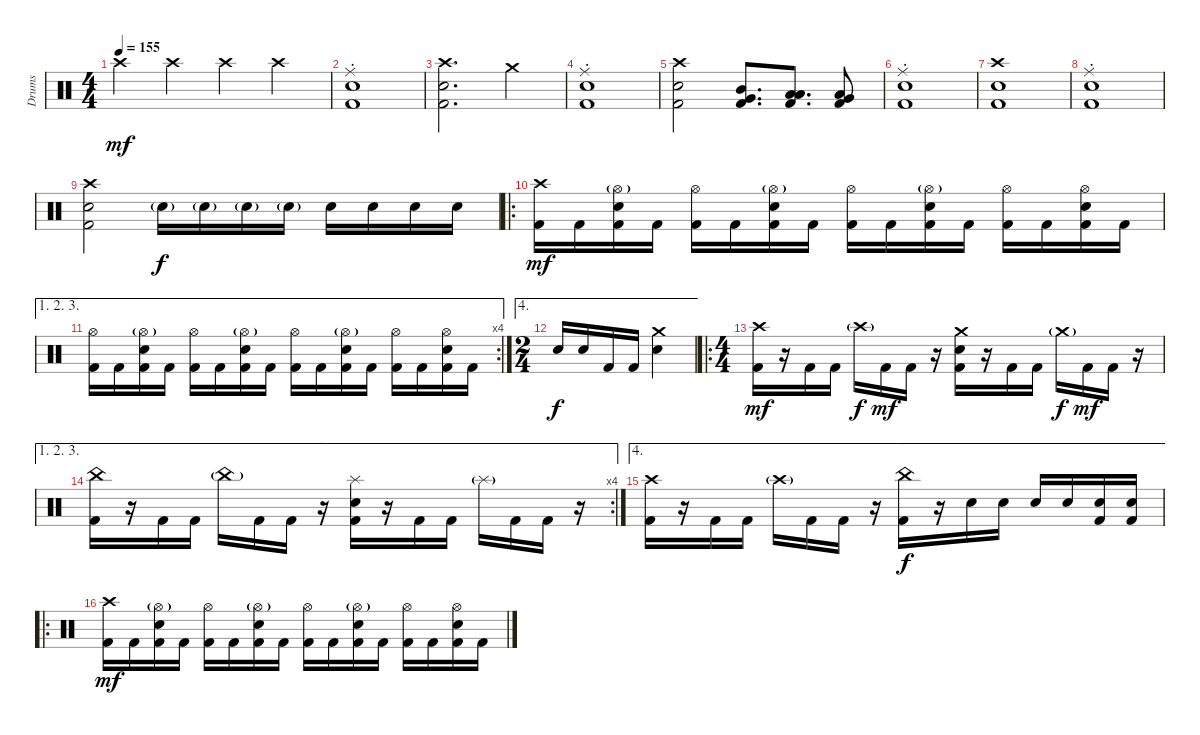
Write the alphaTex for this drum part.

\track ("Drums" "Drums") {instrument percussion}
\staff {score}
\articulation defaults
\ts (4 4)
\tempo 155
\clef neutral
\ks c "Crash high (hit)".4{dy mf} "Crash high (hit)".4 "Crash high (hit)".4 "Crash high (hit)".4
|
("Kick (hit) 2" "Snare (hit) 2" "Ride (choke)").1 |
("Kick (hit) 2" "Crash high (hit)" "Snare (hit) 2").2{d} "Crash medium (hit)".4 |
("Kick (hit) 2" "Snare (hit) 2" "Ride (choke)").1 |
("Kick (hit) 2" "Crash high (hit)" "Snare (hit) 2").2 ("Kick (hit) 2" "Mid Tom (hit)" "Very Low Tom (hit)").8{d} ("Kick (hit) 2" "Low Tom (hit)" "Low Floor Tom (hit)").8{d} ("Kick (hit) 2" "Very Low Tom (hit)" "Low Floor Tom (hit)").8 |
("Kick (hit) 2" "Snare (hit) 2" "Ride (choke)").1 |
("Kick (hit) 2" "Crash high (hit)" "Snare (hit) 2").1 |
("Kick (hit) 2" "Snare (hit) 2" "Ride (choke)").1 |
("Kick (hit) 2" "Crash high (hit)" "Snare (hit) 2").2 "Snare (hit) 2"{g}.16{dy f} "Snare (hit) 2"{g}.16 "Snare (hit) 2"{g}.16 "Snare (hit) 2"{g}.16 "Snare (hit) 2".16 "Snare (hit) 2".16 "Snare (hit) 2".16 "Snare (hit) 2".16 |
\ro
("Kick (hit) 2" "Crash high (hit)").16{dy mf} "Kick (hit) 2".16 ("Kick (hit) 2" "Snare (hit) 2" "Hi-Hat (open)"{g}).16 "Kick (hit) 2".16 ("Kick (hit) 2" "Hi-Hat (open)").16 "Kick (hit) 2".16 ("Kick (hit) 2" "Snare (hit) 2" "Hi-Hat (open)"{g}).16 "Kick (hit) 2".16 ("Kick (hit) 2" "Hi-Hat (open)").16 "Kick (hit) 2".16 ("Kick (hit) 2" "Snare (hit) 2" "Hi-Hat (open)"{g}).16 "Kick (hit) 2".16 ("Kick (hit) 2" "Hi-Hat (open)").16 "Kick (hit) 2".16 ("Kick (hit) 2" "Snare (hit) 2" "Hi-Hat (open)").16 "Kick (hit) 2".16 |
\ae (1 2 3)
\rc 4
("Kick (hit) 2" "Hi-Hat (open)").16 "Kick (hit) 2".16 ("Kick (hit) 2" "Snare (hit) 2" "Hi-Hat (open)"{g}).16 "Kick (hit) 2".16 ("Kick (hit) 2" "Hi-Hat (open)").16 "Kick (hit) 2".16 ("Kick (hit) 2" "Snare (hit) 2" "Hi-Hat (open)"{g}).16 "Kick (hit) 2".16 ("Kick (hit) 2" "Hi-Hat (open)").16 "Kick (hit) 2".16 ("Kick (hit) 2" "Snare (hit) 2" "Hi-Hat (open)"{g}).16 "Kick (hit) 2".16 ("Kick (hit) 2" "Hi-Hat (open)").16 "Kick (hit) 2".16 ("Kick (hit) 2" "Snare (hit) 2" "Hi-Hat (open)").16 "Kick (hit) 2".16 |
\ae 4
\ts (2 4)
"Snare (hit) 2".16{dy f} "Snare (hit) 2".16 "Kick (hit) 2".16 "Kick (hit) 2".16 ("Snare (hit) 2" "Crash medium (hit)").4 |
\ro
\ts (4 4)
("Kick (hit) 2" "Crash high (hit)").16{dy mf} r.16 "Kick (hit) 2".16 "Kick (hit) 2".16 "Crash high (hit)"{g}.16{dy f} "Kick (hit) 2".16{dy mf} "Kick (hit) 2".16 r.16 ("Kick (hit) 2" "Crash medium (hit)" "Snare (hit) 2").16 r.16 "Kick (hit) 2".16 "Kick (hit) 2".16 "Crash medium (hit)"{g}.16{dy f} "Kick (hit) 2".16{dy mf} "Kick (hit) 2".16 r.16 |
\ae (1 2 3)
\rc 4
("Kick (hit) 2" "China (hit)").16 r.16 "Kick (hit) 2".16 "Kick (hit) 2".16 "China (hit)"{g}.16 "Kick (hit) 2".16 "Kick (hit) 2".16 r.16 ("Kick (hit) 2" "Splash (hit)" "Snare (hit) 2").16 r.16 "Kick (hit) 2".16 "Kick (hit) 2".16 "Splash (hit)"{g}.16 "Kick (hit) 2".16 "Kick (hit) 2".16 r.16 |
\ae 4
("Kick (hit) 2" "Crash high (hit)").16 r.16 "Kick (hit) 2".16 "Kick (hit) 2".16 "Crash high (hit)"{g}.16 "Kick (hit) 2".16 "Kick (hit) 2".16 r.16 ("Kick (hit) 2" "China (hit)").16{dy f} r.16 "Snare (hit) 2".16 "Snare (hit) 2".16 "Snare (hit) 2".16 "Snare (hit) 2".16 ("Kick (hit) 2" "Snare (hit) 2").16 ("Kick (hit) 2" "Snare (hit) 2").16 |
\ro
("Kick (hit) 2" "Crash high (hit)").16{dy mf} "Kick (hit) 2".16 ("Kick (hit) 2" "Snare (hit) 2" "Hi-Hat (open)"{g}).16 "Kick (hit) 2".16 ("Kick (hit) 2" "Hi-Hat (open)").16 "Kick (hit) 2".16 ("Kick (hit) 2" "Snare (hit) 2" "Hi-Hat (open)"{g}).16 "Kick (hit) 2".16 ("Kick (hit) 2" "Hi-Hat (open)").16 "Kick (hit) 2".16 ("Kick (hit) 2" "Snare (hit) 2" "Hi-Hat (open)"{g}).16 "Kick (hit) 2".16 ("Kick (hit) 2" "Hi-Hat (open)").16 "Kick (hit) 2".16 ("Kick (hit) 2" "Snare (hit) 2" "Hi-Hat (open)").16 "Kick (hit) 2".16
